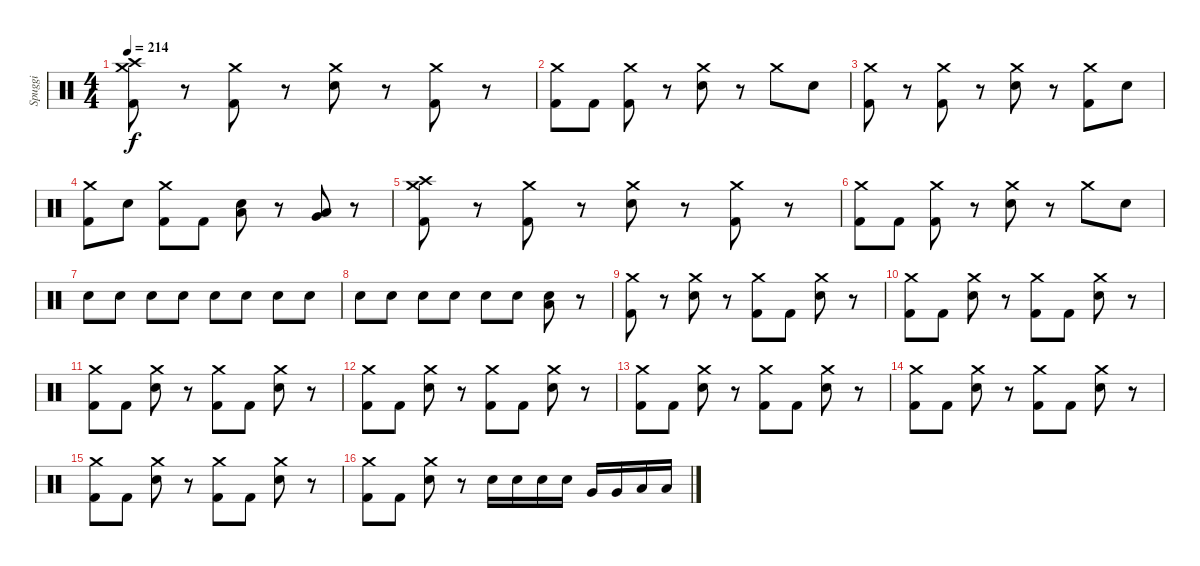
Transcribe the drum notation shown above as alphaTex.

\track ("Spuggi" "Spuggi") {instrument percussion}
\staff {score}
\articulation defaults
\ts (4 4)
\tempo 214
\clef neutral
\ks c
("Crash medium (hit)" "Crash high (hit)" "Kick (hit) 2").8{dy f} r.8 ("Crash medium (hit)" "Kick (hit) 2").8 r.8 ("Crash medium (hit)" "Snare (hit) 2").8 r.8 ("Crash medium (hit)" "Kick (hit) 2").8 r.8 |
("Crash medium (hit)" "Kick (hit) 2").8 "Kick (hit) 2".8 ("Crash medium (hit)" "Kick (hit) 2").8 r.8 ("Crash medium (hit)" "Snare (hit) 2").8 r.8 "Crash medium (hit)".8 "Snare (hit) 2".8 |
("Crash medium (hit)" "Kick (hit) 2").8 r.8 ("Crash medium (hit)" "Kick (hit) 2").8 r.8 ("Crash medium (hit)" "Snare (hit) 2").8 r.8 ("Crash medium (hit)" "Kick (hit) 2").8 "Snare (hit) 2".8 |
("Crash medium (hit)" "Kick (hit) 2").8 "Snare (hit) 2".8 ("Crash medium (hit)" "Kick (hit) 2").8 "Kick (hit) 2".8 ("Snare (hit) 2" "Low Floor Tom (hit)").8 r.8 ("Low Floor Tom (hit)" "Very Low Tom (hit)").8 r.8 |
("Crash medium (hit)" "Crash high (hit)" "Kick (hit) 2").8 r.8 ("Crash medium (hit)" "Kick (hit) 2").8 r.8 ("Crash medium (hit)" "Snare (hit) 2").8 r.8 ("Crash medium (hit)" "Kick (hit) 2").8 r.8 |
("Crash medium (hit)" "Kick (hit) 2").8 "Kick (hit) 2".8 ("Crash medium (hit)" "Kick (hit) 2").8 r.8 ("Crash medium (hit)" "Snare (hit) 2").8 r.8 "Crash medium (hit)".8 "Snare (hit) 2".8 |
"Snare (hit) 2".8 "Snare (hit) 2".8 "Snare (hit) 2".8 "Snare (hit) 2".8 "Snare (hit) 2".8 "Snare (hit) 2".8 "Snare (hit) 2".8 "Snare (hit) 2".8 |
"Snare (hit) 2".8 "Snare (hit) 2".8 "Snare (hit) 2".8 "Snare (hit) 2".8 "Snare (hit) 2".8 "Snare (hit) 2".8 ("Low Floor Tom (hit)" "Snare (hit) 2").8 r.8 |
("Crash medium (hit)" "Kick (hit) 2").8 r.8 ("Crash medium (hit)" "Snare (hit) 2").8 r.8 ("Crash medium (hit)" "Kick (hit) 2").8 "Kick (hit) 2".8 ("Crash medium (hit)" "Snare (hit) 2").8 r.8 |
("Crash medium (hit)" "Kick (hit) 2").8 "Kick (hit) 2".8 ("Crash medium (hit)" "Snare (hit) 2").8 r.8 ("Crash medium (hit)" "Kick (hit) 2").8 "Kick (hit) 2".8 ("Crash medium (hit)" "Snare (hit) 2").8 r.8 |
("Crash medium (hit)" "Kick (hit) 2").8 "Kick (hit) 2".8 ("Crash medium (hit)" "Snare (hit) 2").8 r.8 ("Crash medium (hit)" "Kick (hit) 2").8 "Kick (hit) 2".8 ("Crash medium (hit)" "Snare (hit) 2").8 r.8 |
("Crash medium (hit)" "Kick (hit) 2").8 "Kick (hit) 2".8 ("Crash medium (hit)" "Snare (hit) 2").8 r.8 ("Crash medium (hit)" "Kick (hit) 2").8 "Kick (hit) 2".8 ("Crash medium (hit)" "Snare (hit) 2").8 r.8 |
("Crash medium (hit)" "Kick (hit) 2").8 "Kick (hit) 2".8 ("Crash medium (hit)" "Snare (hit) 2").8 r.8 ("Crash medium (hit)" "Kick (hit) 2").8 "Kick (hit) 2".8 ("Crash medium (hit)" "Snare (hit) 2").8 r.8 |
("Crash medium (hit)" "Kick (hit) 2").8 "Kick (hit) 2".8 ("Crash medium (hit)" "Snare (hit) 2").8 r.8 ("Crash medium (hit)" "Kick (hit) 2").8 "Kick (hit) 2".8 ("Crash medium (hit)" "Snare (hit) 2").8 r.8 |
("Crash medium (hit)" "Kick (hit) 2").8 "Kick (hit) 2".8 ("Crash medium (hit)" "Snare (hit) 2").8 r.8 ("Crash medium (hit)" "Kick (hit) 2").8 "Kick (hit) 2".8 ("Crash medium (hit)" "Snare (hit) 2").8 r.8 |
("Crash medium (hit)" "Kick (hit) 2").8 "Kick (hit) 2".8 ("Crash medium (hit)" "Snare (hit) 2").8 r.8 "Snare (hit) 2".16 "Snare (hit) 2".16 "Snare (hit) 2".16 "Snare (hit) 2".16 "Very Low Tom (hit)".16 "Very Low Tom (hit)".16 "Low Floor Tom (hit)".16 "Low Floor Tom (hit)".16
